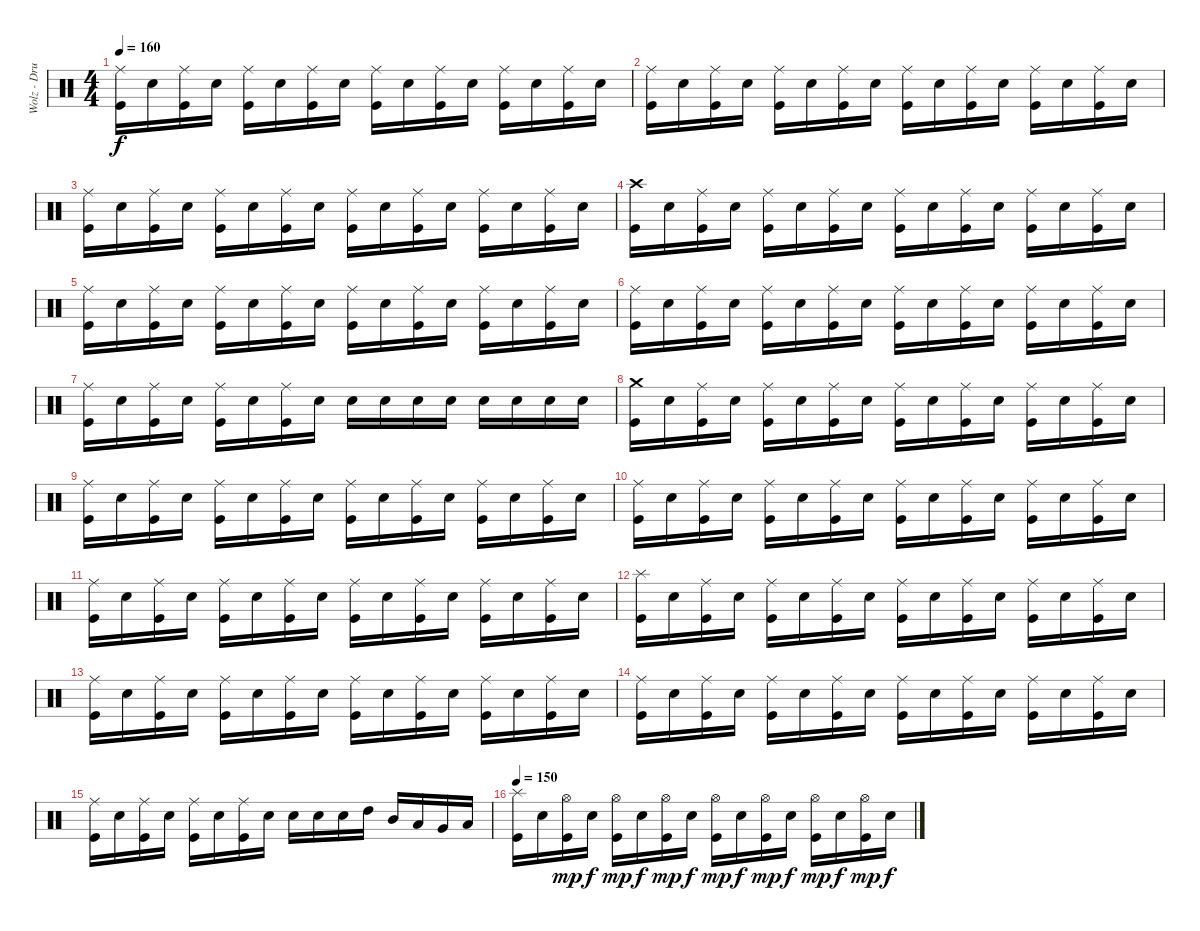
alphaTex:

\track ("Wolz - Drums" "Wolz - Dru") {instrument percussion}
\staff {score}
\articulation defaults
\ts (4 4)
\tempo 160
\clef neutral
\ks c
("Ride (middle)" "Kick (hit)").16{dy f} "Electric Snare (hit)".16 ("Ride (middle)" "Kick (hit)").16 "Electric Snare (hit)".16 ("Ride (middle)" "Kick (hit)").16 "Electric Snare (hit)".16 ("Ride (middle)" "Kick (hit)").16 "Electric Snare (hit)".16 ("Ride (middle)" "Kick (hit)").16 "Electric Snare (hit)".16 ("Ride (middle)" "Kick (hit)").16 "Electric Snare (hit)".16 ("Ride (middle)" "Kick (hit)").16 "Electric Snare (hit)".16 ("Ride (middle)" "Kick (hit)").16 "Electric Snare (hit)".16 |
("Ride (middle)" "Kick (hit)").16 "Electric Snare (hit)".16 ("Ride (middle)" "Kick (hit)").16 "Electric Snare (hit)".16 ("Ride (middle)" "Kick (hit)").16 "Electric Snare (hit)".16 ("Ride (middle)" "Kick (hit)").16 "Electric Snare (hit)".16 ("Ride (middle)" "Kick (hit)").16 "Electric Snare (hit)".16 ("Ride (middle)" "Kick (hit)").16 "Electric Snare (hit)".16 ("Ride (middle)" "Kick (hit)").16 "Electric Snare (hit)".16 ("Ride (middle)" "Kick (hit)").16 "Electric Snare (hit)".16 |
("Ride (middle)" "Kick (hit)").16 "Electric Snare (hit)".16 ("Ride (middle)" "Kick (hit)").16 "Electric Snare (hit)".16 ("Ride (middle)" "Kick (hit)").16 "Electric Snare (hit)".16 ("Ride (middle)" "Kick (hit)").16 "Electric Snare (hit)".16 ("Ride (middle)" "Kick (hit)").16 "Electric Snare (hit)".16 ("Ride (middle)" "Kick (hit)").16 "Electric Snare (hit)".16 ("Ride (middle)" "Kick (hit)").16 "Electric Snare (hit)".16 ("Ride (middle)" "Kick (hit)").16 "Electric Snare (hit)".16 |
("Crash high (hit)" "Kick (hit)").16 "Electric Snare (hit)".16 ("Ride (middle)" "Kick (hit)").16 "Electric Snare (hit)".16 ("Ride (middle)" "Kick (hit)").16 "Electric Snare (hit)".16 ("Ride (middle)" "Kick (hit)").16 "Electric Snare (hit)".16 ("Ride (middle)" "Kick (hit)").16 "Electric Snare (hit)".16 ("Ride (middle)" "Kick (hit)").16 "Electric Snare (hit)".16 ("Ride (middle)" "Kick (hit)").16 "Electric Snare (hit)".16 ("Ride (middle)" "Kick (hit)").16 "Electric Snare (hit)".16 |
("Ride (middle)" "Kick (hit)").16 "Electric Snare (hit)".16 ("Ride (middle)" "Kick (hit)").16 "Electric Snare (hit)".16 ("Ride (middle)" "Kick (hit)").16 "Electric Snare (hit)".16 ("Ride (middle)" "Kick (hit)").16 "Electric Snare (hit)".16 ("Ride (middle)" "Kick (hit)").16 "Electric Snare (hit)".16 ("Ride (middle)" "Kick (hit)").16 "Electric Snare (hit)".16 ("Ride (middle)" "Kick (hit)").16 "Electric Snare (hit)".16 ("Ride (middle)" "Kick (hit)").16 "Electric Snare (hit)".16 |
("Ride (middle)" "Kick (hit)").16 "Electric Snare (hit)".16 ("Ride (middle)" "Kick (hit)").16 "Electric Snare (hit)".16 ("Ride (middle)" "Kick (hit)").16 "Electric Snare (hit)".16 ("Ride (middle)" "Kick (hit)").16 "Electric Snare (hit)".16 ("Ride (middle)" "Kick (hit)").16 "Electric Snare (hit)".16 ("Ride (middle)" "Kick (hit)").16 "Electric Snare (hit)".16 ("Ride (middle)" "Kick (hit)").16 "Electric Snare (hit)".16 ("Ride (middle)" "Kick (hit)").16 "Electric Snare (hit)".16 |
("Ride (middle)" "Kick (hit)").16 "Electric Snare (hit)".16 ("Ride (middle)" "Kick (hit)").16 "Electric Snare (hit)".16 ("Ride (middle)" "Kick (hit)").16 "Electric Snare (hit)".16 ("Ride (middle)" "Kick (hit)").16 "Electric Snare (hit)".16 "Electric Snare (hit)".16 "Electric Snare (hit)".16 "Electric Snare (hit)".16 "Electric Snare (hit)".16 "Electric Snare (hit)".16 "Electric Snare (hit)".16 "Electric Snare (hit)".16 "Electric Snare (hit)".16 |
("Crash medium (hit)" "Kick (hit)").16 "Electric Snare (hit)".16 ("Ride (middle)" "Kick (hit)").16 "Electric Snare (hit)".16 ("Ride (middle)" "Kick (hit)").16 "Electric Snare (hit)".16 ("Ride (middle)" "Kick (hit)").16 "Electric Snare (hit)".16 ("Ride (middle)" "Kick (hit)").16 "Electric Snare (hit)".16 ("Ride (middle)" "Kick (hit)").16 "Electric Snare (hit)".16 ("Ride (middle)" "Kick (hit)").16 "Electric Snare (hit)".16 ("Ride (middle)" "Kick (hit)").16 "Electric Snare (hit)".16 |
("Ride (middle)" "Kick (hit)").16 "Electric Snare (hit)".16 ("Ride (middle)" "Kick (hit)").16 "Electric Snare (hit)".16 ("Ride (middle)" "Kick (hit)").16 "Electric Snare (hit)".16 ("Ride (middle)" "Kick (hit)").16 "Electric Snare (hit)".16 ("Ride (middle)" "Kick (hit)").16 "Electric Snare (hit)".16 ("Ride (middle)" "Kick (hit)").16 "Electric Snare (hit)".16 ("Ride (middle)" "Kick (hit)").16 "Electric Snare (hit)".16 ("Ride (middle)" "Kick (hit)").16 "Electric Snare (hit)".16 |
("Ride (middle)" "Kick (hit)").16 "Electric Snare (hit)".16 ("Ride (middle)" "Kick (hit)").16 "Electric Snare (hit)".16 ("Ride (middle)" "Kick (hit)").16 "Electric Snare (hit)".16 ("Ride (middle)" "Kick (hit)").16 "Electric Snare (hit)".16 ("Ride (middle)" "Kick (hit)").16 "Electric Snare (hit)".16 ("Ride (middle)" "Kick (hit)").16 "Electric Snare (hit)".16 ("Ride (middle)" "Kick (hit)").16 "Electric Snare (hit)".16 ("Ride (middle)" "Kick (hit)").16 "Electric Snare (hit)".16 |
("Ride (middle)" "Kick (hit)").16 "Electric Snare (hit)".16 ("Ride (middle)" "Kick (hit)").16 "Electric Snare (hit)".16 ("Ride (middle)" "Kick (hit)").16 "Electric Snare (hit)".16 ("Ride (middle)" "Kick (hit)").16 "Electric Snare (hit)".16 ("Ride (middle)" "Kick (hit)").16 "Electric Snare (hit)".16 ("Ride (middle)" "Kick (hit)").16 "Electric Snare (hit)".16 ("Ride (middle)" "Kick (hit)").16 "Electric Snare (hit)".16 ("Ride (middle)" "Kick (hit)").16 "Electric Snare (hit)".16 |
("Splash (hit)" "Kick (hit)").16 "Electric Snare (hit)".16 ("Ride (middle)" "Kick (hit)").16 "Electric Snare (hit)".16 ("Ride (middle)" "Kick (hit)").16 "Electric Snare (hit)".16 ("Ride (middle)" "Kick (hit)").16 "Electric Snare (hit)".16 ("Ride (middle)" "Kick (hit)").16 "Electric Snare (hit)".16 ("Ride (middle)" "Kick (hit)").16 "Electric Snare (hit)".16 ("Ride (middle)" "Kick (hit)").16 "Electric Snare (hit)".16 ("Ride (middle)" "Kick (hit)").16 "Electric Snare (hit)".16 |
("Ride (middle)" "Kick (hit)").16 "Electric Snare (hit)".16 ("Ride (middle)" "Kick (hit)").16 "Electric Snare (hit)".16 ("Ride (middle)" "Kick (hit)").16 "Electric Snare (hit)".16 ("Ride (middle)" "Kick (hit)").16 "Electric Snare (hit)".16 ("Ride (middle)" "Kick (hit)").16 "Electric Snare (hit)".16 ("Ride (middle)" "Kick (hit)").16 "Electric Snare (hit)".16 ("Ride (middle)" "Kick (hit)").16 "Electric Snare (hit)".16 ("Ride (middle)" "Kick (hit)").16 "Electric Snare (hit)".16 |
("Ride (middle)" "Kick (hit)").16 "Electric Snare (hit)".16 ("Ride (middle)" "Kick (hit)").16 "Electric Snare (hit)".16 ("Ride (middle)" "Kick (hit)").16 "Electric Snare (hit)".16 ("Ride (middle)" "Kick (hit)").16 "Electric Snare (hit)".16 ("Ride (middle)" "Kick (hit)").16 "Electric Snare (hit)".16 ("Ride (middle)" "Kick (hit)").16 "Electric Snare (hit)".16 ("Ride (middle)" "Kick (hit)").16 "Electric Snare (hit)".16 ("Ride (middle)" "Kick (hit)").16 "Electric Snare (hit)".16 |
("Ride (middle)" "Kick (hit)").16 "Electric Snare (hit)".16 ("Ride (middle)" "Kick (hit)").16 "Electric Snare (hit)".16 ("Ride (middle)" "Kick (hit)").16 "Electric Snare (hit)".16 ("Ride (middle)" "Kick (hit)").16 "Electric Snare (hit)".16 "Electric Snare (hit)".16 "Electric Snare (hit)".16 "Electric Snare (hit)".16 "High Tom (hit)".16 "Mid Tom (hit)".16 "Low Tom (hit)".16 "Very Low Tom (hit)".16 "Low Floor Tom (hit)".16 |
\tempo 150
("Splash (hit)" "Kick (hit)").16 "Electric Snare (hit)".16 ("Hi-Hat (open)" "Kick (hit)").16{dy mp} "Electric Snare (hit)".16{dy f} ("Hi-Hat (open)" "Kick (hit)").16{dy mp} "Electric Snare (hit)".16{dy f} ("Hi-Hat (open)" "Kick (hit)").16{dy mp} "Electric Snare (hit)".16{dy f} ("Hi-Hat (open)" "Kick (hit)").16{dy mp} "Electric Snare (hit)".16{dy f} ("Hi-Hat (open)" "Kick (hit)").16{dy mp} "Electric Snare (hit)".16{dy f} ("Hi-Hat (open)" "Kick (hit)").16{dy mp} "Electric Snare (hit)".16{dy f} ("Hi-Hat (open)" "Kick (hit)").16{dy mp} "Electric Snare (hit)".16{dy f}
